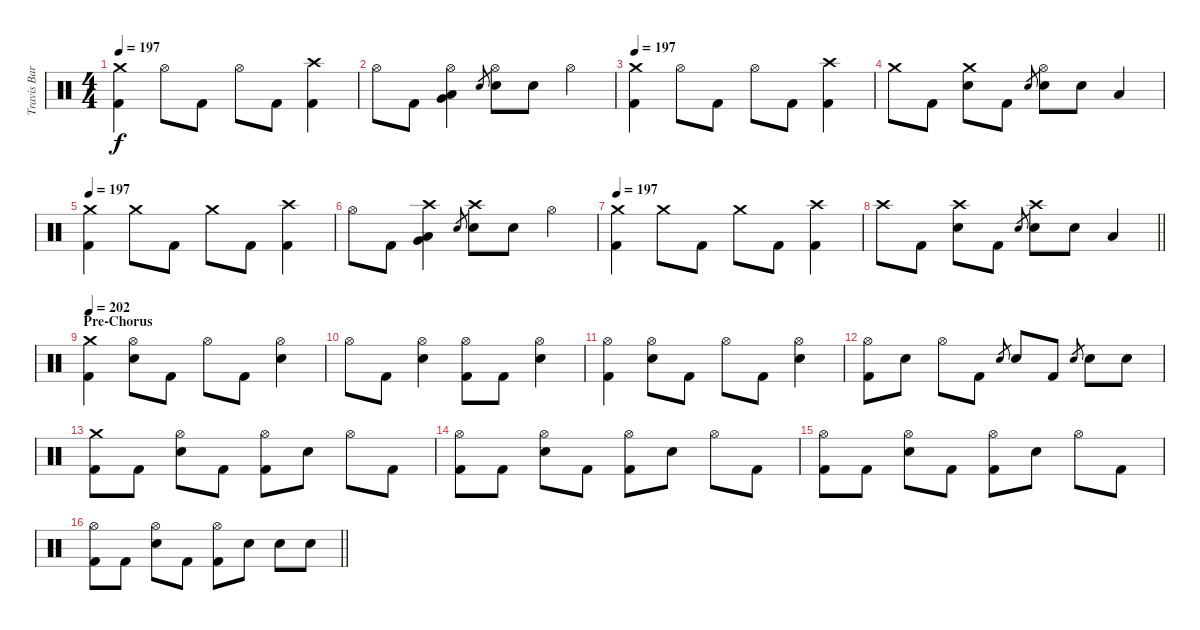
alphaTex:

\track ("Travis Barker - Drums" "Travis Bar") {instrument percussion}
\staff {score}
\articulation defaults
\ts (4 4)
\tempo 197
\clef neutral
\ks c
("Crash medium (hit)" "Kick (hit) 2").4{dy f} "Hi-Hat (open)".8 "Kick (hit) 2".8 "Hi-Hat (open)".8 "Kick (hit) 2".8 ("Crash high (hit)" "Kick (hit) 2").4 |
"Hi-Hat (open)".8 "Kick (hit) 2".8 ("Hi-Hat (open)" "Low Floor Tom (hit)" "Very Low Tom (hit)").4 "Electric Snare (hit)".8{gr} ("Hi-Hat (open)" "Electric Snare (hit)").8 "Electric Snare (hit)".8 "Hi-Hat (open)".4 |
\tempo 197
("Crash medium (hit)" "Kick (hit) 2").4 "Hi-Hat (open)".8 "Kick (hit) 2".8 "Hi-Hat (open)".8 "Kick (hit) 2".8 ("Crash high (hit)" "Kick (hit) 2").4 |
"Crash medium (hit)".8 "Kick (hit) 2".8 ("Crash medium (hit)" "Electric Snare (hit)").8 "Kick (hit) 2".8 "Electric Snare (hit)".8{gr} ("Hi-Hat (open)" "Electric Snare (hit)").8 "Electric Snare (hit)".8 "Low Tom (hit)".4 |
\tempo 197
("Crash medium (hit)" "Kick (hit) 2").4 "Crash medium (hit)".8 "Kick (hit) 2".8 "Crash medium (hit)".8 "Kick (hit) 2".8 ("Crash high (hit)" "Kick (hit) 2").4 |
"Hi-Hat (open)".8 "Kick (hit) 2".8 ("Crash high (hit)" "Low Floor Tom (hit)" "Very Low Tom (hit)").4 "Electric Snare (hit)".8{gr} ("Crash high (hit)" "Electric Snare (hit)").8 "Electric Snare (hit)".8 "Hi-Hat (open)".4 |
\tempo 197
("Crash medium (hit)" "Kick (hit) 2").4 "Crash medium (hit)".8 "Kick (hit) 2".8 "Crash medium (hit)".8 "Kick (hit) 2".8 ("Crash high (hit)" "Kick (hit) 2").4 |
\barLineRight lightlight "Crash high (hit)".8 "Kick (hit) 2".8
("Crash high (hit)" "Electric Snare (hit)").8 "Kick (hit) 2".8 "Electric Snare (hit)".8{gr} ("Crash high (hit)" "Electric Snare (hit)").8 "Electric Snare (hit)".8 "Low Tom (hit)".4 |
\section ("" "Pre-Chorus")
\tempo 202
("Crash medium (hit)" "Kick (hit) 2").4 ("Hi-Hat (open)" "Electric Snare (hit)").8 "Kick (hit) 2".8 "Hi-Hat (open)".8 "Kick (hit) 2".8 ("Hi-Hat (open)" "Electric Snare (hit)").4 |
"Hi-Hat (open)".8 "Kick (hit) 2".8 ("Hi-Hat (open)" "Electric Snare (hit)").4 ("Hi-Hat (open)" "Kick (hit) 2").8 "Kick (hit) 2".8 ("Hi-Hat (open)" "Electric Snare (hit)").4 |
("Hi-Hat (open)" "Kick (hit) 2").4 ("Hi-Hat (open)" "Electric Snare (hit)").8 "Kick (hit) 2".8 "Hi-Hat (open)".8 "Kick (hit) 2".8 ("Hi-Hat (open)" "Electric Snare (hit)").4 |
("Hi-Hat (open)" "Kick (hit) 2").8 "Electric Snare (hit)".8 "Hi-Hat (open)".8 "Kick (hit) 2".8 "Electric Snare (hit)".8{gr} "Electric Snare (hit)".8 "Kick (hit) 2".8 "Electric Snare (hit)".8{gr} "Electric Snare (hit)".8 "Electric Snare (hit)".8 |
("Crash medium (hit)" "Kick (hit) 2").8 "Kick (hit) 2".8 ("Hi-Hat (open)" "Electric Snare (hit)").8 "Kick (hit) 2".8 ("Hi-Hat (open)" "Kick (hit) 2").8 "Electric Snare (hit)".8 "Hi-Hat (open)".8 "Kick (hit) 2".8 |
("Hi-Hat (open)" "Kick (hit) 2").8 "Kick (hit) 2".8 ("Hi-Hat (open)" "Electric Snare (hit)").8 "Kick (hit) 2".8 ("Hi-Hat (open)" "Kick (hit) 2").8 "Electric Snare (hit)".8 "Hi-Hat (open)".8 "Kick (hit) 2".8 |
("Hi-Hat (open)" "Kick (hit) 2").8 "Kick (hit) 2".8 ("Hi-Hat (open)" "Electric Snare (hit)").8 "Kick (hit) 2".8 ("Hi-Hat (open)" "Kick (hit) 2").8 "Electric Snare (hit)".8 "Hi-Hat (open)".8 "Kick (hit) 2".8 |
\barLineRight lightlight
("Hi-Hat (open)" "Kick (hit) 2").8 "Kick (hit) 2".8 ("Hi-Hat (open)" "Electric Snare (hit)").8 "Kick (hit) 2".8 ("Hi-Hat (open)" "Kick (hit) 2").8 "Electric Snare (hit)".8 "Electric Snare (hit)".8 "Electric Snare (hit)".8
